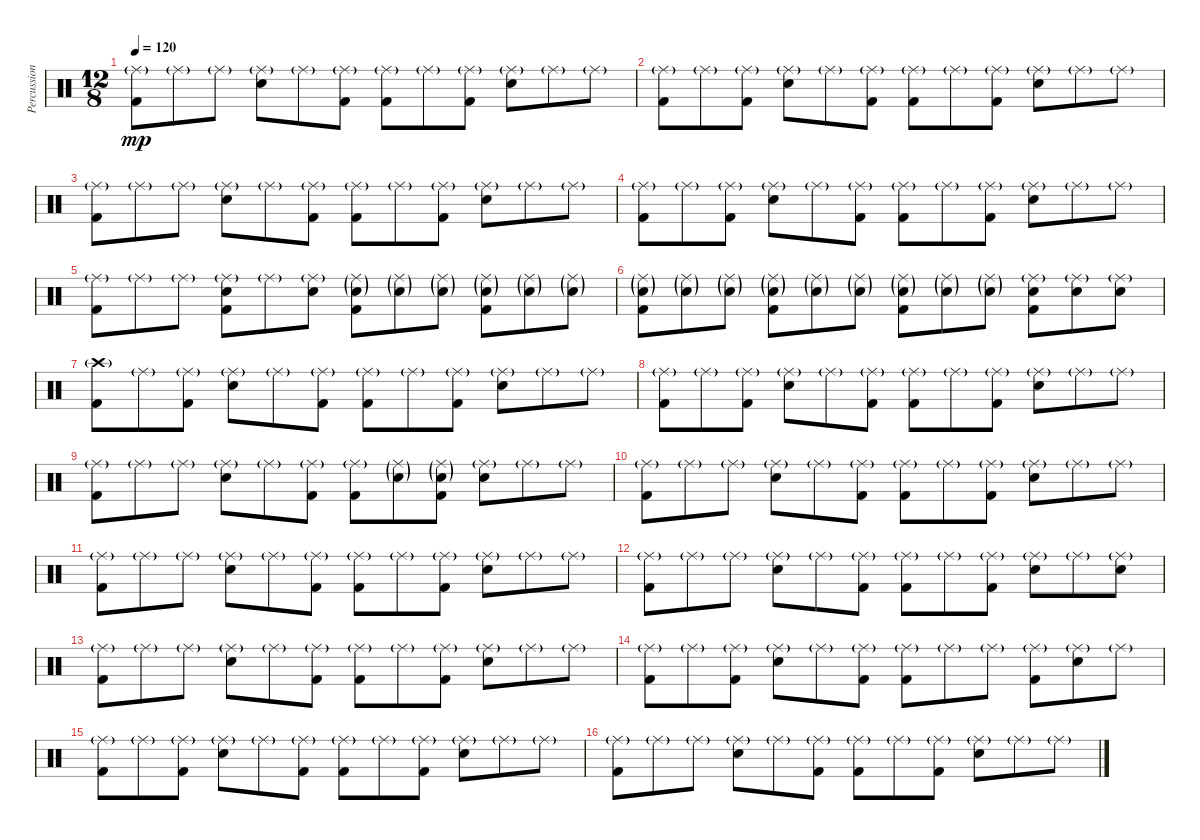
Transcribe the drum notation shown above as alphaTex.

\track ("Percussion" "Percussion") {instrument percussion}
\staff {score}
\articulation defaults
\ts (12 8)
\tempo 120
\clef neutral
\ks c
("Ride (middle)"{g} "Kick (hit) 2").8{dy mp} "Ride (middle)"{g}.8 "Ride (middle)"{g}.8 ("Ride (middle)"{g} "Electric Snare (hit)").8 "Ride (middle)"{g}.8 ("Ride (middle)"{g} "Kick (hit) 2").8 ("Ride (middle)"{g} "Kick (hit) 2").8 "Ride (middle)"{g}.8 ("Ride (middle)"{g} "Kick (hit) 2").8 ("Ride (middle)"{g} "Electric Snare (hit)").8 "Ride (middle)"{g}.8 "Ride (middle)"{g}.8 |
("Ride (middle)"{g} "Kick (hit) 2").8 "Ride (middle)"{g}.8 ("Ride (middle)"{g} "Kick (hit) 2").8 ("Ride (middle)"{g} "Electric Snare (hit)").8 "Ride (middle)"{g}.8 ("Ride (middle)"{g} "Kick (hit) 2").8 ("Ride (middle)"{g} "Kick (hit) 2").8 "Ride (middle)"{g}.8 ("Ride (middle)"{g} "Kick (hit) 2").8 ("Ride (middle)"{g} "Electric Snare (hit)").8 "Ride (middle)"{g}.8 "Ride (middle)"{g}.8 |
("Ride (middle)"{g} "Kick (hit) 2").8 "Ride (middle)"{g}.8 "Ride (middle)"{g}.8 ("Ride (middle)"{g} "Electric Snare (hit)").8 "Ride (middle)"{g}.8 ("Ride (middle)"{g} "Kick (hit) 2").8 ("Ride (middle)"{g} "Kick (hit) 2").8 "Ride (middle)"{g}.8 ("Ride (middle)"{g} "Kick (hit) 2").8 ("Ride (middle)"{g} "Electric Snare (hit)").8 "Ride (middle)"{g}.8 "Ride (middle)"{g}.8 |
("Ride (middle)"{g} "Kick (hit) 2").8 "Ride (middle)"{g}.8 ("Ride (middle)"{g} "Kick (hit) 2").8 ("Ride (middle)"{g} "Electric Snare (hit)").8 "Ride (middle)"{g}.8 ("Ride (middle)"{g} "Kick (hit) 2").8 ("Ride (middle)"{g} "Kick (hit) 2").8 "Ride (middle)"{g}.8 ("Ride (middle)"{g} "Kick (hit) 2").8 ("Ride (middle)"{g} "Electric Snare (hit)").8 "Ride (middle)"{g}.8 "Ride (middle)"{g}.8 |
("Ride (middle)"{g} "Kick (hit) 2").8 "Ride (middle)"{g}.8 "Ride (middle)"{g}.8 ("Ride (middle)"{g} "Electric Snare (hit)" "Kick (hit) 2").8 "Ride (middle)"{g}.8 ("Ride (middle)"{g} "Electric Snare (hit)").8 ("Ride (middle)"{g} "Electric Snare (hit)"{g} "Kick (hit) 2").8 ("Ride (middle)"{g} "Electric Snare (hit)"{g}).8 ("Ride (middle)"{g} "Electric Snare (hit)"{g}).8 ("Ride (middle)"{g} "Electric Snare (hit)"{g} "Kick (hit) 2").8 ("Ride (middle)"{g} "Electric Snare (hit)"{g}).8 ("Ride (middle)"{g} "Electric Snare (hit)"{g}).8 |
("Ride (middle)"{g} "Electric Snare (hit)"{g} "Kick (hit) 2").8 ("Ride (middle)"{g} "Electric Snare (hit)"{g}).8 ("Ride (middle)"{g} "Electric Snare (hit)"{g}).8 ("Ride (middle)"{g} "Electric Snare (hit)"{g} "Kick (hit) 2").8 ("Ride (middle)"{g} "Electric Snare (hit)"{g}).8 ("Ride (middle)"{g} "Electric Snare (hit)"{g}).8 ("Ride (middle)"{g} "Electric Snare (hit)"{g} "Kick (hit) 2").8 ("Ride (middle)"{g} "Electric Snare (hit)"{g}).8 ("Ride (middle)"{g} "Electric Snare (hit)"{g}).8 ("Ride (middle)"{g} "Electric Snare (hit)" "Kick (hit) 2").8 ("Ride (middle)"{g} "Electric Snare (hit)").8 ("Ride (middle)"{g} "Electric Snare (hit)").8 |
("Crash high (hit)"{g} "Kick (hit) 2").8 "Ride (middle)"{g}.8 ("Ride (middle)"{g} "Kick (hit) 2").8 ("Ride (middle)"{g} "Electric Snare (hit)").8 "Ride (middle)"{g}.8 ("Ride (middle)"{g} "Kick (hit) 2").8 ("Ride (middle)"{g} "Kick (hit) 2").8 "Ride (middle)"{g}.8 ("Ride (middle)"{g} "Kick (hit) 2").8 ("Ride (middle)"{g} "Electric Snare (hit)").8 "Ride (middle)"{g}.8 "Ride (middle)"{g}.8 |
("Ride (middle)"{g} "Kick (hit) 2").8 "Ride (middle)"{g}.8 ("Ride (middle)"{g} "Kick (hit) 2").8 ("Ride (middle)"{g} "Electric Snare (hit)").8 "Ride (middle)"{g}.8 ("Ride (middle)"{g} "Kick (hit) 2").8 ("Ride (middle)"{g} "Kick (hit) 2").8 "Ride (middle)"{g}.8 ("Ride (middle)"{g} "Kick (hit) 2").8 ("Ride (middle)"{g} "Electric Snare (hit)").8 "Ride (middle)"{g}.8 "Ride (middle)"{g}.8 |
("Ride (middle)"{g} "Kick (hit) 2").8 "Ride (middle)"{g}.8 "Ride (middle)"{g}.8 ("Ride (middle)"{g} "Electric Snare (hit)").8 "Ride (middle)"{g}.8 ("Ride (middle)"{g} "Kick (hit) 2").8 ("Ride (middle)"{g} "Kick (hit) 2").8 ("Ride (middle)"{g} "Electric Snare (hit)"{g}).8 ("Ride (middle)"{g} "Electric Snare (hit)"{g} "Kick (hit) 2").8 ("Ride (middle)"{g} "Electric Snare (hit)").8 "Ride (middle)"{g}.8 "Ride (middle)"{g}.8 |
("Ride (middle)"{g} "Kick (hit) 2").8 "Ride (middle)"{g}.8 "Ride (middle)"{g}.8 ("Ride (middle)"{g} "Electric Snare (hit)").8 "Ride (middle)"{g}.8 ("Ride (middle)"{g} "Kick (hit) 2").8 ("Ride (middle)"{g} "Kick (hit) 2").8 "Ride (middle)"{g}.8 ("Ride (middle)"{g} "Kick (hit) 2").8 ("Ride (middle)"{g} "Electric Snare (hit)").8 "Ride (middle)"{g}.8 "Ride (middle)"{g}.8 |
("Ride (middle)"{g} "Kick (hit) 2").8 "Ride (middle)"{g}.8 "Ride (middle)"{g}.8 ("Ride (middle)"{g} "Electric Snare (hit)").8 "Ride (middle)"{g}.8 ("Ride (middle)"{g} "Kick (hit) 2").8 ("Ride (middle)"{g} "Kick (hit) 2").8 "Ride (middle)"{g}.8 ("Ride (middle)"{g} "Kick (hit) 2").8 ("Ride (middle)"{g} "Electric Snare (hit)").8 "Ride (middle)"{g}.8 "Ride (middle)"{g}.8 |
("Ride (middle)"{g} "Kick (hit) 2").8 "Ride (middle)"{g}.8 "Ride (middle)"{g}.8 ("Ride (middle)"{g} "Electric Snare (hit)").8 "Ride (middle)"{g}.8 ("Ride (middle)"{g} "Kick (hit) 2").8 ("Ride (middle)"{g} "Kick (hit) 2").8 "Ride (middle)"{g}.8 ("Ride (middle)"{g} "Kick (hit) 2").8 ("Ride (middle)"{g} "Electric Snare (hit)").8 "Ride (middle)"{g}.8 ("Ride (middle)"{g} "Electric Snare (hit)").8 |
("Ride (middle)"{g} "Kick (hit) 2").8 "Ride (middle)"{g}.8 "Ride (middle)"{g}.8 ("Ride (middle)"{g} "Electric Snare (hit)").8 "Ride (middle)"{g}.8 ("Ride (middle)"{g} "Kick (hit) 2").8 ("Ride (middle)"{g} "Kick (hit) 2").8 "Ride (middle)"{g}.8 ("Ride (middle)"{g} "Kick (hit) 2").8 ("Ride (middle)"{g} "Electric Snare (hit)").8 "Ride (middle)"{g}.8 "Ride (middle)"{g}.8 |
("Ride (middle)"{g} "Kick (hit) 2").8 "Ride (middle)"{g}.8 ("Ride (middle)"{g} "Kick (hit) 2").8 ("Ride (middle)"{g} "Electric Snare (hit)").8 "Ride (middle)"{g}.8 ("Ride (middle)"{g} "Kick (hit) 2").8 ("Ride (middle)"{g} "Kick (hit) 2").8 "Ride (middle)"{g}.8 "Ride (middle)"{g}.8 ("Ride (middle)"{g} "Kick (hit) 2").8 ("Ride (middle)"{g} "Electric Snare (hit)").8 "Ride (middle)"{g}.8 |
("Ride (middle)"{g} "Kick (hit) 2").8 "Ride (middle)"{g}.8 ("Ride (middle)"{g} "Kick (hit) 2").8 ("Ride (middle)"{g} "Electric Snare (hit)").8 "Ride (middle)"{g}.8 ("Ride (middle)"{g} "Kick (hit) 2").8 ("Ride (middle)"{g} "Kick (hit) 2").8 "Ride (middle)"{g}.8 ("Ride (middle)"{g} "Kick (hit) 2").8 ("Ride (middle)"{g} "Electric Snare (hit)").8 "Ride (middle)"{g}.8 "Ride (middle)"{g}.8 |
("Ride (middle)"{g} "Kick (hit) 2").8 "Ride (middle)"{g}.8 "Ride (middle)"{g}.8 ("Ride (middle)"{g} "Electric Snare (hit)").8 "Ride (middle)"{g}.8 ("Ride (middle)"{g} "Kick (hit) 2").8 ("Ride (middle)"{g} "Kick (hit) 2").8 "Ride (middle)"{g}.8 ("Ride (middle)"{g} "Kick (hit) 2").8 ("Ride (middle)"{g} "Electric Snare (hit)").8 "Ride (middle)"{g}.8 "Ride (middle)"{g}.8
